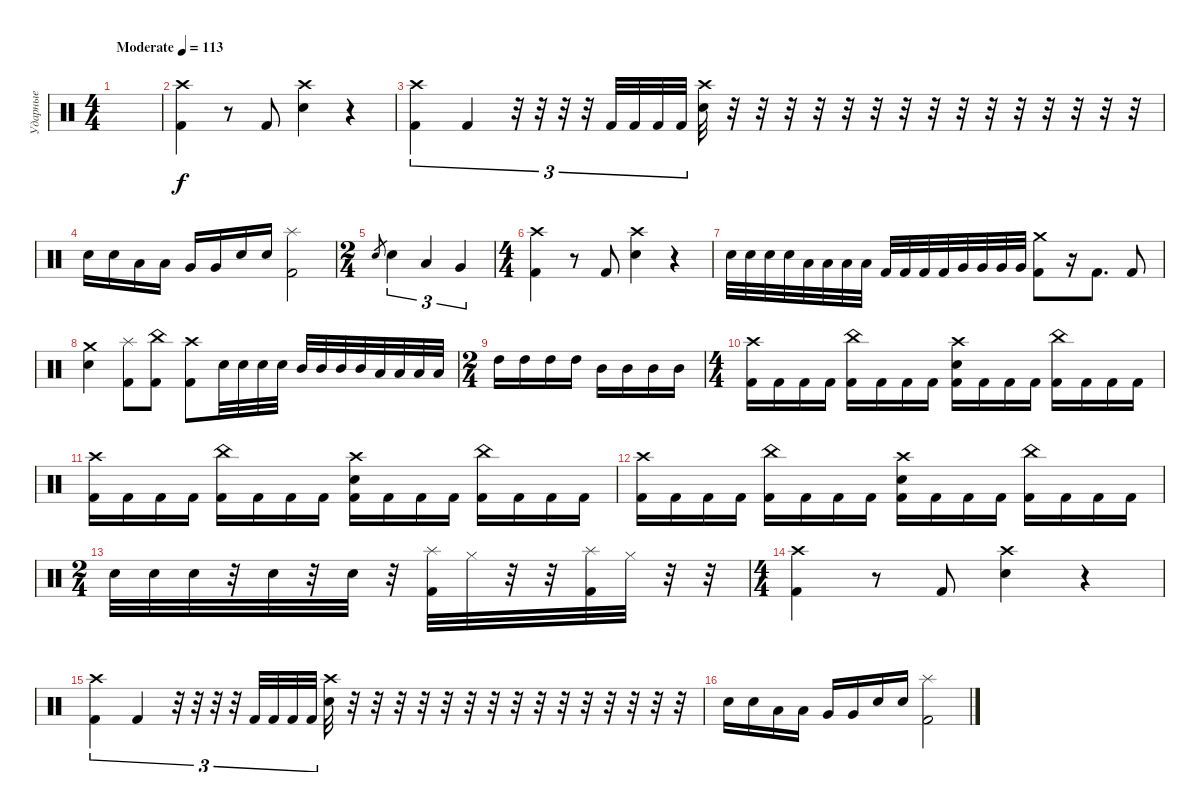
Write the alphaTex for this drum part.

\track ("Ударные" "Ударные") {instrument percussion}
\staff {score}
\articulation defaults
\ts (4 4)
\tempo (113 "Moderate")
\clef neutral
\ks c
|
("Crash high (hit)" "Kick (hit) 2").4 r.8 "Kick (hit) 2".8 ("Crash high (hit)" "Electric Snare (hit)").4 r.4 |
("Crash high (hit)" "Kick (hit) 2").4{tu (3 2)} "Kick (hit) 2".4{tu (3 2)} r.32{tu (3 2)} r.32{tu (3 2)} r.32{tu (3 2)} r.32{tu (3 2)} "Kick (hit) 2".32{tu (3 2)} "Kick (hit) 2".32{tu (3 2)} "Kick (hit) 2".32{tu (3 2)} "Kick (hit) 2".32{tu (3 2)} ("Crash high (hit)" "Electric Snare (hit)").32 r.32 r.32 r.32 r.32 r.32 r.32 r.32 r.32 r.32 r.32 r.32 r.32 r.32 r.32 r.32 |
"Electric Snare (hit)".16 "Electric Snare (hit)".16 "Low Tom (hit)".16 "Low Tom (hit)".16 "Very Low Tom (hit)".16 "Very Low Tom (hit)".16 "Electric Snare (hit)".16 "Electric Snare (hit)".16 ("Splash (hit)" "Kick (hit) 2").2 |
\ts (2 4)
"Electric Snare (hit)".8{gr} "Electric Snare (hit)".4{tu (3 2)} "Low Tom (hit)".4{tu (3 2)} "Very Low Tom (hit)".4{tu (3 2)} |
\ts (4 4)
("Crash high (hit)" "Kick (hit) 2").4 r.8 "Kick (hit) 2".8 ("Crash high (hit)" "Electric Snare (hit)").4 r.4 |
"Electric Snare (hit)".32 "Electric Snare (hit)".32 "Electric Snare (hit)".32 "Electric Snare (hit)".32 "Low Tom (hit)".32 "Low Tom (hit)".32 "Low Tom (hit)".32 "Low Tom (hit)".32 "Kick (hit) 2".32 "Kick (hit) 2".32 "Kick (hit) 2".32 "Kick (hit) 2".32 "Very Low Tom (hit)".32 "Very Low Tom (hit)".32 "Very Low Tom (hit)".32 "Very Low Tom (hit)".32 ("Crash medium (hit)" "Kick (hit) 2").8 r.16 "Kick (hit) 2".8{d} "Kick (hit) 2".8 |
("Crash medium (hit)" "Electric Snare (hit)").4 ("Splash (hit)" "Kick (hit) 2").8 ("China (hit)" "Kick (hit) 2").8 ("Crash high (hit)" "Kick (hit) 2").8 "Electric Snare (hit)".32 "Electric Snare (hit)".32 "Electric Snare (hit)".32 "Electric Snare (hit)".32 "Mid Tom (hit)".32 "Mid Tom (hit)".32 "Mid Tom (hit)".32 "Mid Tom (hit)".32 "Low Tom (hit)".32 "Low Tom (hit)".32 "Low Tom (hit)".32 "Low Tom (hit)".32 |
\ts (2 4)
"High Tom (hit)".16 "High Tom (hit)".16 "High Tom (hit)".16 "High Tom (hit)".16 "Mid Tom (hit)".16 "Mid Tom (hit)".16 "Mid Tom (hit)".16 "Mid Tom (hit)".16 |
\ts (4 4)
("Crash high (hit)" "Kick (hit) 2").16 "Kick (hit) 2".16 "Kick (hit) 2".16 "Kick (hit) 2".16 ("China (hit)" "Kick (hit) 2").16 "Kick (hit) 2".16 "Kick (hit) 2".16 "Kick (hit) 2".16 ("Crash high (hit)" "Electric Snare (hit)" "Kick (hit) 2").16 "Kick (hit) 2".16 "Kick (hit) 2".16 "Kick (hit) 2".16 ("China (hit)" "Kick (hit) 2").16 "Kick (hit) 2".16 "Kick (hit) 2".16 "Kick (hit) 2".16 |
("Crash high (hit)" "Kick (hit) 2").16 "Kick (hit) 2".16 "Kick (hit) 2".16 "Kick (hit) 2".16 ("China (hit)" "Kick (hit) 2").16 "Kick (hit) 2".16 "Kick (hit) 2".16 "Kick (hit) 2".16 ("Crash high (hit)" "Electric Snare (hit)" "Kick (hit) 2").16 "Kick (hit) 2".16 "Kick (hit) 2".16 "Kick (hit) 2".16 ("China (hit)" "Kick (hit) 2").16 "Kick (hit) 2".16 "Kick (hit) 2".16 "Kick (hit) 2".16 |
("Crash high (hit)" "Kick (hit) 2").16 "Kick (hit) 2".16 "Kick (hit) 2".16 "Kick (hit) 2".16 ("China (hit)" "Kick (hit) 2").16 "Kick (hit) 2".16 "Kick (hit) 2".16 "Kick (hit) 2".16 ("Crash high (hit)" "Electric Snare (hit)" "Kick (hit) 2").16 "Kick (hit) 2".16 "Kick (hit) 2".16 "Kick (hit) 2".16 ("China (hit)" "Kick (hit) 2").16 "Kick (hit) 2".16 "Kick (hit) 2".16 "Kick (hit) 2".16 |
\ts (2 4)
"Electric Snare (hit)".32 "Electric Snare (hit)".32 "Electric Snare (hit)".32 r.32 "Electric Snare (hit)".32 r.32 "Electric Snare (hit)".32 r.32 ("Splash (hit)" "Kick (hit) 2").32 "Hi-Hat (closed)".32 r.32 r.32 ("Splash (hit)" "Kick (hit) 2").32 "Hi-Hat (closed)".32 r.32 r.32 |
\ts (4 4)
("Crash high (hit)" "Kick (hit) 2").4 r.8 "Kick (hit) 2".8 ("Crash high (hit)" "Electric Snare (hit)").4 r.4 |
("Crash high (hit)" "Kick (hit) 2").4{tu (3 2)} "Kick (hit) 2".4{tu (3 2)} r.32{tu (3 2)} r.32{tu (3 2)} r.32{tu (3 2)} r.32{tu (3 2)} "Kick (hit) 2".32{tu (3 2)} "Kick (hit) 2".32{tu (3 2)} "Kick (hit) 2".32{tu (3 2)} "Kick (hit) 2".32{tu (3 2)} ("Crash high (hit)" "Electric Snare (hit)").32 r.32 r.32 r.32 r.32 r.32 r.32 r.32 r.32 r.32 r.32 r.32 r.32 r.32 r.32 r.32 |
"Electric Snare (hit)".16 "Electric Snare (hit)".16 "Low Tom (hit)".16 "Low Tom (hit)".16 "Very Low Tom (hit)".16 "Very Low Tom (hit)".16 "Electric Snare (hit)".16 "Electric Snare (hit)".16 ("Splash (hit)" "Kick (hit) 2").2
